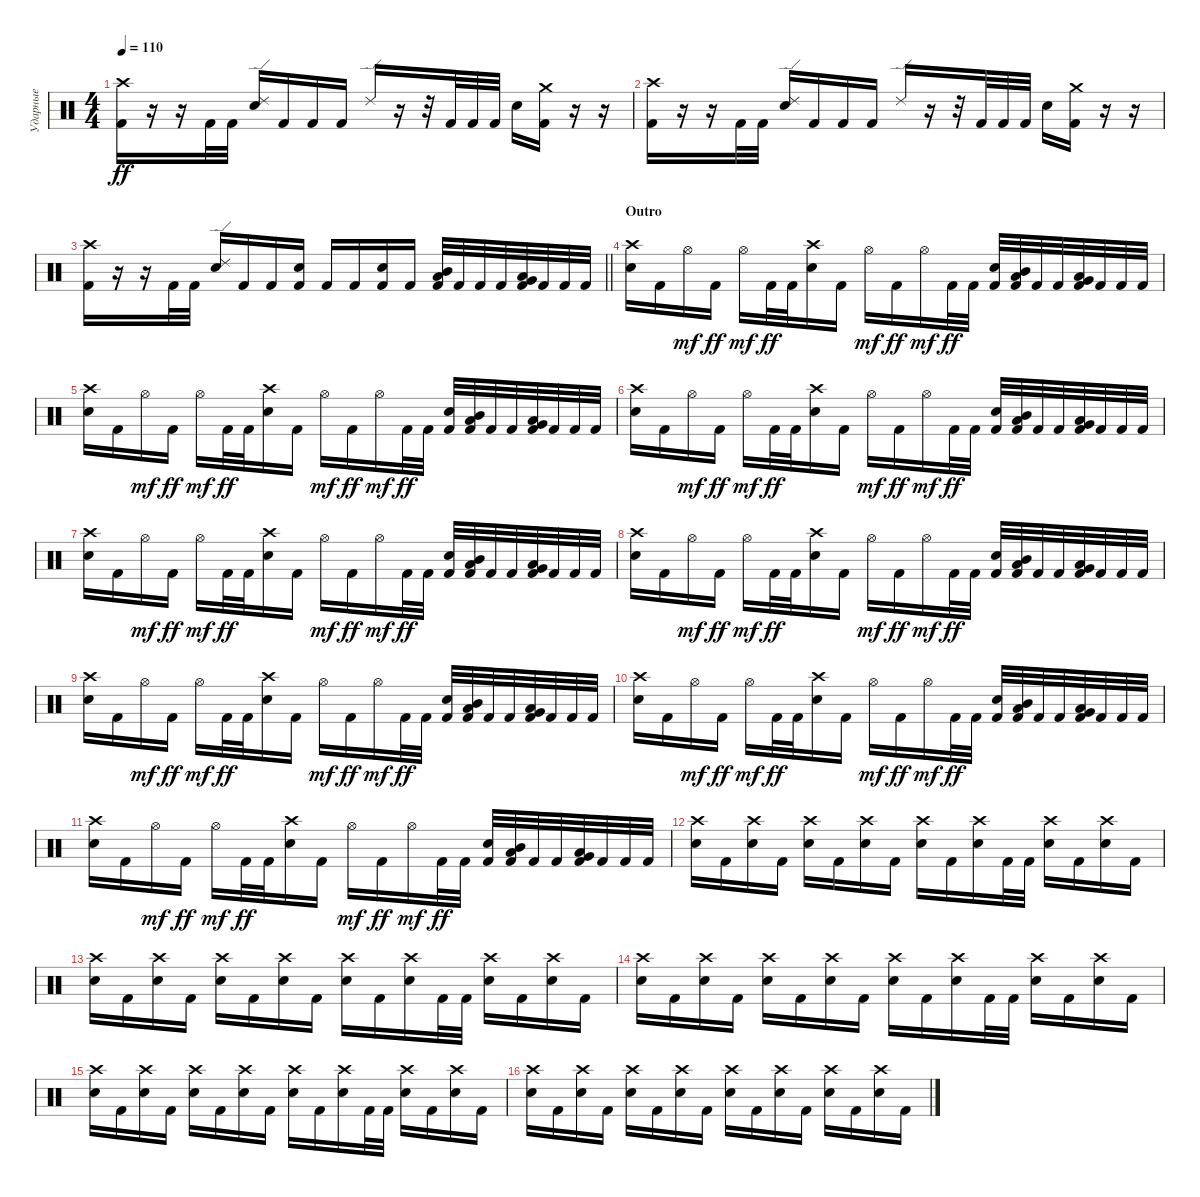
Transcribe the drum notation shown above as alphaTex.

\track ("Ударные" "Ударные") {instrument percussion}
\staff {score}
\articulation defaults
\ts (4 4)
\tempo 110
\clef neutral
\ks c
("Crash high (hit)" "Kick (hit) 2").16{dy ff} r.16 r.16 "Kick (hit) 2".32 "Kick (hit) 2".32 ("Ride (edge) 2" "Snare (hit) 2").16 "Kick (hit) 2".16 "Kick (hit) 2".16 "Kick (hit) 2".16 "Ride (edge) 2".16 r.16 r.32 "Kick (hit) 2".32 "Kick (hit) 2".32 "Kick (hit) 2".32 "Snare (hit) 2".16 ("Crash medium (hit)" "Kick (hit) 2").16 r.16 r.16 |
("Crash high (hit)" "Kick (hit) 2").16 r.16 r.16 "Kick (hit) 2".32 "Kick (hit) 2".32 ("Ride (edge) 2" "Snare (hit) 2").16 "Kick (hit) 2".16 "Kick (hit) 2".16 "Kick (hit) 2".16 "Ride (edge) 2".16 r.16 r.32 "Kick (hit) 2".32 "Kick (hit) 2".32 "Kick (hit) 2".32 "Snare (hit) 2".16 ("Crash medium (hit)" "Kick (hit) 2").16 r.16 r.16 |
\barLineRight lightlight
("Crash high (hit)" "Kick (hit) 2").16 r.16 r.16 "Kick (hit) 2".32 "Kick (hit) 2".32 ("Ride (edge) 2" "Snare (hit) 2").16 "Kick (hit) 2".16 "Kick (hit) 2".16 ("Snare (hit) 2" "Kick (hit) 2").16 "Kick (hit) 2".16 "Kick (hit) 2".16 ("Snare (hit) 2" "Kick (hit) 2").16 "Kick (hit) 2".16 ("Low Tom (hit)" "Mid Tom (hit)" "Kick (hit) 2").32 "Kick (hit) 2".32 "Kick (hit) 2".32 "Kick (hit) 2".32 ("Very Low Tom (hit)" "Low Tom (hit)" "Kick (hit) 2").32 "Kick (hit) 2".32 "Kick (hit) 2".32 "Kick (hit) 2".32 |
\section ("" "Outro")
("Crash high (hit)" "Snare (hit) 2").16 "Kick (hit) 2".16 "Hi-Hat (open)".16{dy mf} "Kick (hit) 2".16{dy ff} "Hi-Hat (open)".16{dy mf} "Kick (hit) 2".32{dy ff} "Kick (hit) 2".32 ("Crash high (hit)" "Snare (hit) 2").16 "Kick (hit) 2".16 "Hi-Hat (open)".16{dy mf} "Kick (hit) 2".16{dy ff} "Hi-Hat (open)".16{dy mf} "Kick (hit) 2".32{dy ff} "Kick (hit) 2".32 ("Snare (hit) 2" "Kick (hit) 2").32 ("Low Tom (hit)" "Mid Tom (hit)" "Kick (hit) 2").32 "Kick (hit) 2".32 "Kick (hit) 2".32 ("Very Low Tom (hit)" "Low Tom (hit)" "Kick (hit) 2").32 "Kick (hit) 2".32 "Kick (hit) 2".32 "Kick (hit) 2".32 |
("Crash high (hit)" "Snare (hit) 2").16 "Kick (hit) 2".16 "Hi-Hat (open)".16{dy mf} "Kick (hit) 2".16{dy ff} "Hi-Hat (open)".16{dy mf} "Kick (hit) 2".32{dy ff} "Kick (hit) 2".32 ("Crash high (hit)" "Snare (hit) 2").16 "Kick (hit) 2".16 "Hi-Hat (open)".16{dy mf} "Kick (hit) 2".16{dy ff} "Hi-Hat (open)".16{dy mf} "Kick (hit) 2".32{dy ff} "Kick (hit) 2".32 ("Snare (hit) 2" "Kick (hit) 2").32 ("Low Tom (hit)" "Mid Tom (hit)" "Kick (hit) 2").32 "Kick (hit) 2".32 "Kick (hit) 2".32 ("Very Low Tom (hit)" "Low Tom (hit)" "Kick (hit) 2").32 "Kick (hit) 2".32 "Kick (hit) 2".32 "Kick (hit) 2".32 |
("Crash high (hit)" "Snare (hit) 2").16 "Kick (hit) 2".16 "Hi-Hat (open)".16{dy mf} "Kick (hit) 2".16{dy ff} "Hi-Hat (open)".16{dy mf} "Kick (hit) 2".32{dy ff} "Kick (hit) 2".32 ("Crash high (hit)" "Snare (hit) 2").16 "Kick (hit) 2".16 "Hi-Hat (open)".16{dy mf} "Kick (hit) 2".16{dy ff} "Hi-Hat (open)".16{dy mf} "Kick (hit) 2".32{dy ff} "Kick (hit) 2".32 ("Snare (hit) 2" "Kick (hit) 2").32 ("Low Tom (hit)" "Mid Tom (hit)" "Kick (hit) 2").32 "Kick (hit) 2".32 "Kick (hit) 2".32 ("Very Low Tom (hit)" "Low Tom (hit)" "Kick (hit) 2").32 "Kick (hit) 2".32 "Kick (hit) 2".32 "Kick (hit) 2".32 |
("Crash high (hit)" "Snare (hit) 2").16 "Kick (hit) 2".16 "Hi-Hat (open)".16{dy mf} "Kick (hit) 2".16{dy ff} "Hi-Hat (open)".16{dy mf} "Kick (hit) 2".32{dy ff} "Kick (hit) 2".32 ("Crash high (hit)" "Snare (hit) 2").16 "Kick (hit) 2".16 "Hi-Hat (open)".16{dy mf} "Kick (hit) 2".16{dy ff} "Hi-Hat (open)".16{dy mf} "Kick (hit) 2".32{dy ff} "Kick (hit) 2".32 ("Snare (hit) 2" "Kick (hit) 2").32 ("Low Tom (hit)" "Mid Tom (hit)" "Kick (hit) 2").32 "Kick (hit) 2".32 "Kick (hit) 2".32 ("Very Low Tom (hit)" "Low Tom (hit)" "Kick (hit) 2").32 "Kick (hit) 2".32 "Kick (hit) 2".32 "Kick (hit) 2".32 |
("Crash high (hit)" "Snare (hit) 2").16 "Kick (hit) 2".16 "Hi-Hat (open)".16{dy mf} "Kick (hit) 2".16{dy ff} "Hi-Hat (open)".16{dy mf} "Kick (hit) 2".32{dy ff} "Kick (hit) 2".32 ("Crash high (hit)" "Snare (hit) 2").16 "Kick (hit) 2".16 "Hi-Hat (open)".16{dy mf} "Kick (hit) 2".16{dy ff} "Hi-Hat (open)".16{dy mf} "Kick (hit) 2".32{dy ff} "Kick (hit) 2".32 ("Snare (hit) 2" "Kick (hit) 2").32 ("Low Tom (hit)" "Mid Tom (hit)" "Kick (hit) 2").32 "Kick (hit) 2".32 "Kick (hit) 2".32 ("Very Low Tom (hit)" "Low Tom (hit)" "Kick (hit) 2").32 "Kick (hit) 2".32 "Kick (hit) 2".32 "Kick (hit) 2".32 |
("Crash high (hit)" "Snare (hit) 2").16 "Kick (hit) 2".16 "Hi-Hat (open)".16{dy mf} "Kick (hit) 2".16{dy ff} "Hi-Hat (open)".16{dy mf} "Kick (hit) 2".32{dy ff} "Kick (hit) 2".32 ("Crash high (hit)" "Snare (hit) 2").16 "Kick (hit) 2".16 "Hi-Hat (open)".16{dy mf} "Kick (hit) 2".16{dy ff} "Hi-Hat (open)".16{dy mf} "Kick (hit) 2".32{dy ff} "Kick (hit) 2".32 ("Snare (hit) 2" "Kick (hit) 2").32 ("Low Tom (hit)" "Mid Tom (hit)" "Kick (hit) 2").32 "Kick (hit) 2".32 "Kick (hit) 2".32 ("Very Low Tom (hit)" "Low Tom (hit)" "Kick (hit) 2").32 "Kick (hit) 2".32 "Kick (hit) 2".32 "Kick (hit) 2".32 |
("Crash high (hit)" "Snare (hit) 2").16 "Kick (hit) 2".16 "Hi-Hat (open)".16{dy mf} "Kick (hit) 2".16{dy ff} "Hi-Hat (open)".16{dy mf} "Kick (hit) 2".32{dy ff} "Kick (hit) 2".32 ("Crash high (hit)" "Snare (hit) 2").16 "Kick (hit) 2".16 "Hi-Hat (open)".16{dy mf} "Kick (hit) 2".16{dy ff} "Hi-Hat (open)".16{dy mf} "Kick (hit) 2".32{dy ff} "Kick (hit) 2".32 ("Snare (hit) 2" "Kick (hit) 2").32 ("Low Tom (hit)" "Mid Tom (hit)" "Kick (hit) 2").32 "Kick (hit) 2".32 "Kick (hit) 2".32 ("Very Low Tom (hit)" "Low Tom (hit)" "Kick (hit) 2").32 "Kick (hit) 2".32 "Kick (hit) 2".32 "Kick (hit) 2".32 |
("Crash high (hit)" "Snare (hit) 2").16 "Kick (hit) 2".16 "Hi-Hat (open)".16{dy mf} "Kick (hit) 2".16{dy ff} "Hi-Hat (open)".16{dy mf} "Kick (hit) 2".32{dy ff} "Kick (hit) 2".32 ("Crash high (hit)" "Snare (hit) 2").16 "Kick (hit) 2".16 "Hi-Hat (open)".16{dy mf} "Kick (hit) 2".16{dy ff} "Hi-Hat (open)".16{dy mf} "Kick (hit) 2".32{dy ff} "Kick (hit) 2".32 ("Snare (hit) 2" "Kick (hit) 2").32 ("Low Tom (hit)" "Mid Tom (hit)" "Kick (hit) 2").32 "Kick (hit) 2".32 "Kick (hit) 2".32 ("Very Low Tom (hit)" "Low Tom (hit)" "Kick (hit) 2").32 "Kick (hit) 2".32 "Kick (hit) 2".32 "Kick (hit) 2".32 |
("Crash high (hit)" "Snare (hit) 2").16 "Kick (hit) 2".16 ("Crash high (hit)" "Snare (hit) 2").16 "Kick (hit) 2".16 ("Crash high (hit)" "Snare (hit) 2").16 "Kick (hit) 2".16 ("Crash high (hit)" "Snare (hit) 2").16 "Kick (hit) 2".16 ("Crash high (hit)" "Snare (hit) 2").16 "Kick (hit) 2".16 ("Crash high (hit)" "Snare (hit) 2").16 "Kick (hit) 2".32 "Kick (hit) 2".32 ("Crash high (hit)" "Snare (hit) 2").16 "Kick (hit) 2".16 ("Crash high (hit)" "Snare (hit) 2").16 "Kick (hit) 2".16 |
("Crash high (hit)" "Snare (hit) 2").16 "Kick (hit) 2".16 ("Crash high (hit)" "Snare (hit) 2").16 "Kick (hit) 2".16 ("Crash high (hit)" "Snare (hit) 2").16 "Kick (hit) 2".16 ("Crash high (hit)" "Snare (hit) 2").16 "Kick (hit) 2".16 ("Crash high (hit)" "Snare (hit) 2").16 "Kick (hit) 2".16 ("Crash high (hit)" "Snare (hit) 2").16 "Kick (hit) 2".32 "Kick (hit) 2".32 ("Crash high (hit)" "Snare (hit) 2").16 "Kick (hit) 2".16 ("Crash high (hit)" "Snare (hit) 2").16 "Kick (hit) 2".16 |
("Crash high (hit)" "Snare (hit) 2").16 "Kick (hit) 2".16 ("Crash high (hit)" "Snare (hit) 2").16 "Kick (hit) 2".16 ("Crash high (hit)" "Snare (hit) 2").16 "Kick (hit) 2".16 ("Crash high (hit)" "Snare (hit) 2").16 "Kick (hit) 2".16 ("Crash high (hit)" "Snare (hit) 2").16 "Kick (hit) 2".16 ("Crash high (hit)" "Snare (hit) 2").16 "Kick (hit) 2".32 "Kick (hit) 2".32 ("Crash high (hit)" "Snare (hit) 2").16 "Kick (hit) 2".16 ("Crash high (hit)" "Snare (hit) 2").16 "Kick (hit) 2".16 |
("Crash high (hit)" "Snare (hit) 2").16 "Kick (hit) 2".16 ("Crash high (hit)" "Snare (hit) 2").16 "Kick (hit) 2".16 ("Crash high (hit)" "Snare (hit) 2").16 "Kick (hit) 2".16 ("Crash high (hit)" "Snare (hit) 2").16 "Kick (hit) 2".16 ("Crash high (hit)" "Snare (hit) 2").16 "Kick (hit) 2".16 ("Crash high (hit)" "Snare (hit) 2").16 "Kick (hit) 2".32 "Kick (hit) 2".32 ("Crash high (hit)" "Snare (hit) 2").16 "Kick (hit) 2".16 ("Crash high (hit)" "Snare (hit) 2").16 "Kick (hit) 2".16 |
("Crash high (hit)" "Snare (hit) 2").16 "Kick (hit) 2".16 ("Crash high (hit)" "Snare (hit) 2").16 "Kick (hit) 2".16 ("Crash high (hit)" "Snare (hit) 2").16 "Kick (hit) 2".16 ("Crash high (hit)" "Snare (hit) 2").16 "Kick (hit) 2".16 ("Crash high (hit)" "Snare (hit) 2").16 "Kick (hit) 2".16 ("Crash high (hit)" "Snare (hit) 2").16 "Kick (hit) 2".16 ("Crash high (hit)" "Snare (hit) 2").16 "Kick (hit) 2".16 ("Crash high (hit)" "Snare (hit) 2").16 "Kick (hit) 2".16
